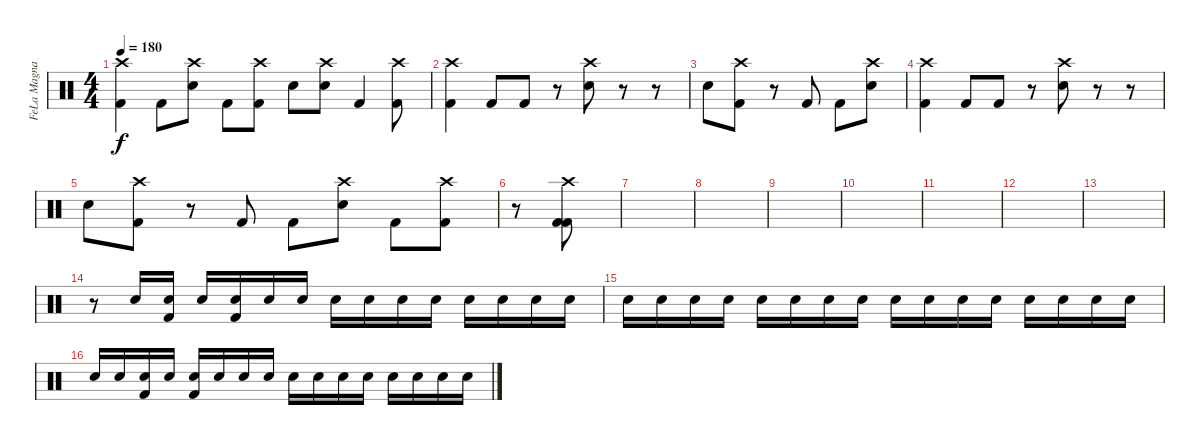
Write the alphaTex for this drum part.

\track ("FeLa Magnani" "FeLa Magna") {instrument percussion}
\staff {score}
\articulation defaults
\ts (4 4)
\tempo 180
\clef neutral
\ks c
("Crash high (hit)" "Kick (hit) 2").4{dy f} "Kick (hit) 2".8 ("Crash high (hit)" "Electric Snare (hit)").8 "Kick (hit) 2".8 ("Crash high (hit)" "Kick (hit) 2").8 "Electric Snare (hit)".8 ("Crash high (hit)" "Electric Snare (hit)").8 "Kick (hit) 2".4 ("Crash high (hit)" "Kick (hit) 2").8 |
("Crash high (hit)" "Kick (hit) 2").4 "Kick (hit) 2".8 "Kick (hit) 2".8 r.8 ("Crash high (hit)" "Electric Snare (hit)").8 r.8 r.8 |
"Electric Snare (hit)".8 ("Crash high (hit)" "Kick (hit) 2").8 r.8 "Kick (hit) 2".8 "Kick (hit) 2".8 ("Crash high (hit)" "Electric Snare (hit)").8 |
("Crash high (hit)" "Kick (hit) 2").4 "Kick (hit) 2".8 "Kick (hit) 2".8 r.8 ("Crash high (hit)" "Electric Snare (hit)").8 r.8 r.8 |
"Electric Snare (hit)".8 ("Crash high (hit)" "Kick (hit) 2").8 r.8 "Kick (hit) 2".8 "Kick (hit) 2".8 ("Crash high (hit)" "Electric Snare (hit)").8 "Kick (hit) 2".8 ("Crash high (hit)" "Kick (hit) 2").8 |
r.8 ("Crash high (hit)" "Kick (hit) 2" "Kick (hit) 2").8 |
|
|
|
|
|
|
|
r.8 "Electric Snare (hit)".16 ("Electric Snare (hit)" "Kick (hit) 2").16 "Electric Snare (hit)".16 ("Electric Snare (hit)" "Kick (hit) 2").16 "Electric Snare (hit)".16 "Electric Snare (hit)".16 "Electric Snare (hit)".16 "Electric Snare (hit)".16 "Electric Snare (hit)".16 "Electric Snare (hit)".16 "Electric Snare (hit)".16 "Electric Snare (hit)".16 "Electric Snare (hit)".16 "Electric Snare (hit)".16 |
"Electric Snare (hit)".16 "Electric Snare (hit)".16 "Electric Snare (hit)".16 "Electric Snare (hit)".16 "Electric Snare (hit)".16 "Electric Snare (hit)".16 "Electric Snare (hit)".16 "Electric Snare (hit)".16 "Electric Snare (hit)".16 "Electric Snare (hit)".16 "Electric Snare (hit)".16 "Electric Snare (hit)".16 "Electric Snare (hit)".16 "Electric Snare (hit)".16 "Electric Snare (hit)".16 "Electric Snare (hit)".16 |
"Electric Snare (hit)".16 "Electric Snare (hit)".16 ("Electric Snare (hit)" "Kick (hit) 2").16 "Electric Snare (hit)".16 ("Electric Snare (hit)" "Kick (hit) 2").16 "Electric Snare (hit)".16 "Electric Snare (hit)".16 "Electric Snare (hit)".16 "Electric Snare (hit)".16 "Electric Snare (hit)".16 "Electric Snare (hit)".16 "Electric Snare (hit)".16 "Electric Snare (hit)".16 "Electric Snare (hit)".16 "Electric Snare (hit)".16 "Electric Snare (hit)".16
